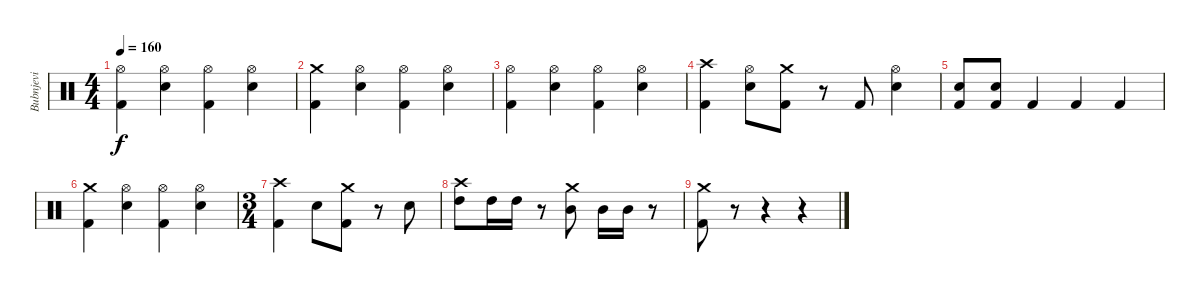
\track ("Bubnjevi" "Bubnjevi") {instrument percussion}
\staff {score}
\articulation defaults
\ts (4 4)
\tempo 160
\clef neutral
\ks c
("Hi-Hat (open)" "Kick (hit) 2").4{dy f} ("Hi-Hat (open)" "Snare (hit) 2").4 ("Hi-Hat (open)" "Kick (hit) 2").4 ("Hi-Hat (open)" "Snare (hit) 2").4 |
("Crash medium (hit)" "Kick (hit) 2").4 ("Hi-Hat (open)" "Snare (hit) 2").4 ("Hi-Hat (open)" "Kick (hit) 2").4 ("Hi-Hat (open)" "Snare (hit) 2").4 |
("Hi-Hat (open)" "Kick (hit) 2").4 ("Hi-Hat (open)" "Snare (hit) 2").4 ("Hi-Hat (open)" "Kick (hit) 2").4 ("Hi-Hat (open)" "Snare (hit) 2").4 |
("Crash high (hit)" "Kick (hit) 2").4 ("Hi-Hat (open)" "Snare (hit) 2").8 ("Crash medium (hit)" "Kick (hit) 2").8 r.8 "Kick (hit) 2".8 ("Hi-Hat (open)" "Snare (hit) 2").4 |
("Snare (hit) 2" "Kick (hit) 2").8 ("Snare (hit) 2" "Kick (hit) 2").8 "Kick (hit) 2".4 "Kick (hit) 2".4 "Kick (hit) 2".4 |
("Crash medium (hit)" "Kick (hit) 2").4 ("Hi-Hat (open)" "Snare (hit) 2").4 ("Hi-Hat (open)" "Kick (hit) 2").4 ("Hi-Hat (open)" "Snare (hit) 2").4 |
\ts (3 4)
("Crash high (hit)" "Kick (hit) 2").4 "Snare (hit) 2".8 ("Crash medium (hit)" "Kick (hit) 2").8 r.8 "Snare (hit) 2".8 |
("Crash high (hit)" "High Tom (hit)").8 "High Tom (hit)".16 "High Tom (hit)".16 r.8 ("Crash medium (hit)" "Mid Tom (hit)").8 "Mid Tom (hit)".16 "Mid Tom (hit)".16 r.8 |
("Crash medium (hit)" "Kick (hit) 2").8 r.8 r.4 r.4
